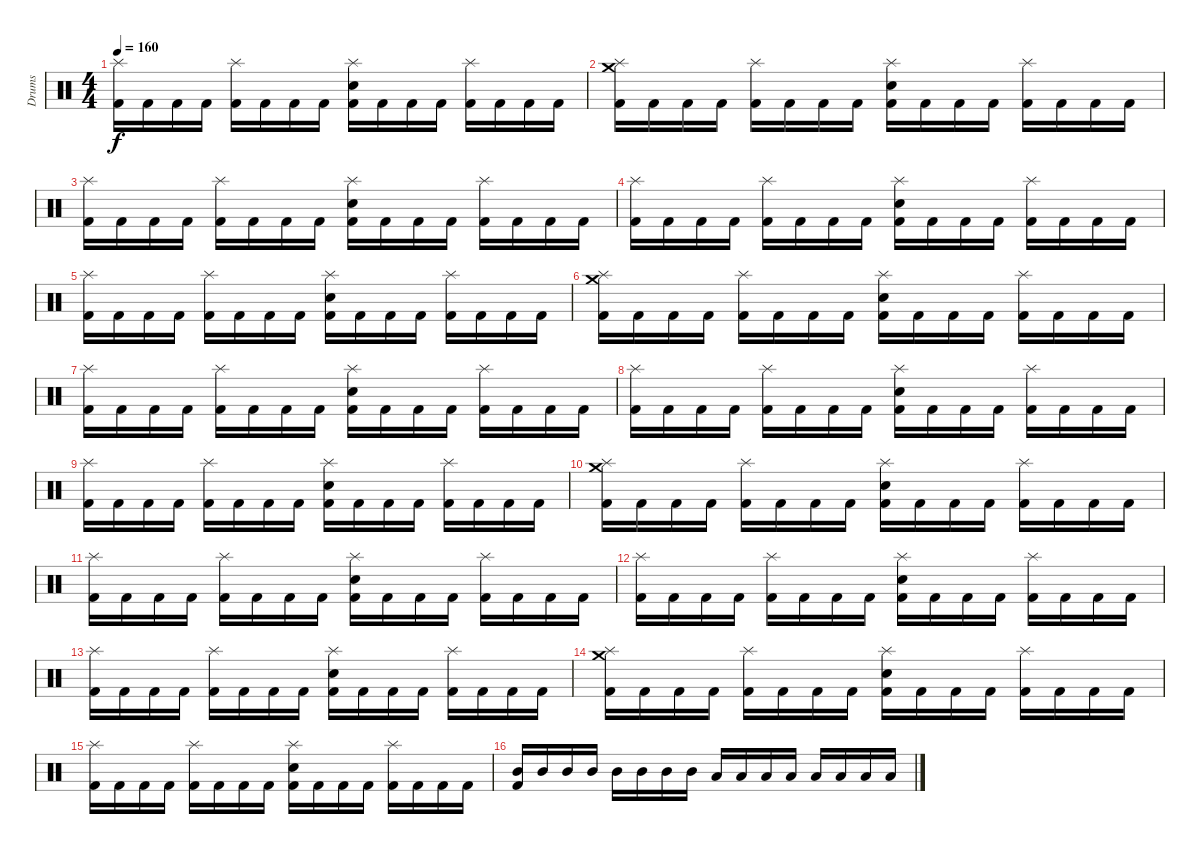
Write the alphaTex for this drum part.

\track ("Drums" "Drums") {instrument percussion}
\staff {score}
\articulation defaults
\ts (4 4)
\tempo 160
\clef neutral
\ks c
("Splash (hit)" "Kick (hit) 2").16{dy f} "Kick (hit) 2".16 "Kick (hit) 2".16 "Kick (hit) 2".16 ("Splash (hit)" "Kick (hit) 2").16 "Kick (hit) 2".16 "Kick (hit) 2".16 "Kick (hit) 2".16 ("Splash (hit)" "Snare (hit) 2" "Kick (hit) 2").16 "Kick (hit) 2".16 "Kick (hit) 2".16 "Kick (hit) 2".16 ("Splash (hit)" "Kick (hit) 2").16 "Kick (hit) 2".16 "Kick (hit) 2".16 "Kick (hit) 2".16 |
("Splash (hit)" "Crash medium (hit)" "Kick (hit) 2").16 "Kick (hit) 2".16 "Kick (hit) 2".16 "Kick (hit) 2".16 ("Splash (hit)" "Kick (hit) 2").16 "Kick (hit) 2".16 "Kick (hit) 2".16 "Kick (hit) 2".16 ("Splash (hit)" "Snare (hit) 2" "Kick (hit) 2").16 "Kick (hit) 2".16 "Kick (hit) 2".16 "Kick (hit) 2".16 ("Splash (hit)" "Kick (hit) 2").16 "Kick (hit) 2".16 "Kick (hit) 2".16 "Kick (hit) 2".16 |
("Splash (hit)" "Kick (hit) 2").16 "Kick (hit) 2".16 "Kick (hit) 2".16 "Kick (hit) 2".16 ("Splash (hit)" "Kick (hit) 2").16 "Kick (hit) 2".16 "Kick (hit) 2".16 "Kick (hit) 2".16 ("Splash (hit)" "Snare (hit) 2" "Kick (hit) 2").16 "Kick (hit) 2".16 "Kick (hit) 2".16 "Kick (hit) 2".16 ("Splash (hit)" "Kick (hit) 2").16 "Kick (hit) 2".16 "Kick (hit) 2".16 "Kick (hit) 2".16 |
("Splash (hit)" "Kick (hit) 2").16 "Kick (hit) 2".16 "Kick (hit) 2".16 "Kick (hit) 2".16 ("Splash (hit)" "Kick (hit) 2").16 "Kick (hit) 2".16 "Kick (hit) 2".16 "Kick (hit) 2".16 ("Splash (hit)" "Snare (hit) 2" "Kick (hit) 2").16 "Kick (hit) 2".16 "Kick (hit) 2".16 "Kick (hit) 2".16 ("Splash (hit)" "Kick (hit) 2").16 "Kick (hit) 2".16 "Kick (hit) 2".16 "Kick (hit) 2".16 |
("Splash (hit)" "Kick (hit) 2").16 "Kick (hit) 2".16 "Kick (hit) 2".16 "Kick (hit) 2".16 ("Splash (hit)" "Kick (hit) 2").16 "Kick (hit) 2".16 "Kick (hit) 2".16 "Kick (hit) 2".16 ("Splash (hit)" "Snare (hit) 2" "Kick (hit) 2").16 "Kick (hit) 2".16 "Kick (hit) 2".16 "Kick (hit) 2".16 ("Splash (hit)" "Kick (hit) 2").16 "Kick (hit) 2".16 "Kick (hit) 2".16 "Kick (hit) 2".16 |
("Splash (hit)" "Crash medium (hit)" "Kick (hit) 2").16 "Kick (hit) 2".16 "Kick (hit) 2".16 "Kick (hit) 2".16 ("Splash (hit)" "Kick (hit) 2").16 "Kick (hit) 2".16 "Kick (hit) 2".16 "Kick (hit) 2".16 ("Splash (hit)" "Snare (hit) 2" "Kick (hit) 2").16 "Kick (hit) 2".16 "Kick (hit) 2".16 "Kick (hit) 2".16 ("Splash (hit)" "Kick (hit) 2").16 "Kick (hit) 2".16 "Kick (hit) 2".16 "Kick (hit) 2".16 |
("Splash (hit)" "Kick (hit) 2").16 "Kick (hit) 2".16 "Kick (hit) 2".16 "Kick (hit) 2".16 ("Splash (hit)" "Kick (hit) 2").16 "Kick (hit) 2".16 "Kick (hit) 2".16 "Kick (hit) 2".16 ("Splash (hit)" "Snare (hit) 2" "Kick (hit) 2").16 "Kick (hit) 2".16 "Kick (hit) 2".16 "Kick (hit) 2".16 ("Splash (hit)" "Kick (hit) 2").16 "Kick (hit) 2".16 "Kick (hit) 2".16 "Kick (hit) 2".16 |
("Splash (hit)" "Kick (hit) 2").16 "Kick (hit) 2".16 "Kick (hit) 2".16 "Kick (hit) 2".16 ("Splash (hit)" "Kick (hit) 2").16 "Kick (hit) 2".16 "Kick (hit) 2".16 "Kick (hit) 2".16 ("Splash (hit)" "Snare (hit) 2" "Kick (hit) 2").16 "Kick (hit) 2".16 "Kick (hit) 2".16 "Kick (hit) 2".16 ("Splash (hit)" "Kick (hit) 2").16 "Kick (hit) 2".16 "Kick (hit) 2".16 "Kick (hit) 2".16 |
("Splash (hit)" "Kick (hit) 2").16 "Kick (hit) 2".16 "Kick (hit) 2".16 "Kick (hit) 2".16 ("Splash (hit)" "Kick (hit) 2").16 "Kick (hit) 2".16 "Kick (hit) 2".16 "Kick (hit) 2".16 ("Splash (hit)" "Snare (hit) 2" "Kick (hit) 2").16 "Kick (hit) 2".16 "Kick (hit) 2".16 "Kick (hit) 2".16 ("Splash (hit)" "Kick (hit) 2").16 "Kick (hit) 2".16 "Kick (hit) 2".16 "Kick (hit) 2".16 |
("Splash (hit)" "Crash medium (hit)" "Kick (hit) 2").16 "Kick (hit) 2".16 "Kick (hit) 2".16 "Kick (hit) 2".16 ("Splash (hit)" "Kick (hit) 2").16 "Kick (hit) 2".16 "Kick (hit) 2".16 "Kick (hit) 2".16 ("Splash (hit)" "Snare (hit) 2" "Kick (hit) 2").16 "Kick (hit) 2".16 "Kick (hit) 2".16 "Kick (hit) 2".16 ("Splash (hit)" "Kick (hit) 2").16 "Kick (hit) 2".16 "Kick (hit) 2".16 "Kick (hit) 2".16 |
("Splash (hit)" "Kick (hit) 2").16 "Kick (hit) 2".16 "Kick (hit) 2".16 "Kick (hit) 2".16 ("Splash (hit)" "Kick (hit) 2").16 "Kick (hit) 2".16 "Kick (hit) 2".16 "Kick (hit) 2".16 ("Splash (hit)" "Snare (hit) 2" "Kick (hit) 2").16 "Kick (hit) 2".16 "Kick (hit) 2".16 "Kick (hit) 2".16 ("Splash (hit)" "Kick (hit) 2").16 "Kick (hit) 2".16 "Kick (hit) 2".16 "Kick (hit) 2".16 |
("Splash (hit)" "Kick (hit) 2").16 "Kick (hit) 2".16 "Kick (hit) 2".16 "Kick (hit) 2".16 ("Splash (hit)" "Kick (hit) 2").16 "Kick (hit) 2".16 "Kick (hit) 2".16 "Kick (hit) 2".16 ("Splash (hit)" "Snare (hit) 2" "Kick (hit) 2").16 "Kick (hit) 2".16 "Kick (hit) 2".16 "Kick (hit) 2".16 ("Splash (hit)" "Kick (hit) 2").16 "Kick (hit) 2".16 "Kick (hit) 2".16 "Kick (hit) 2".16 |
("Splash (hit)" "Kick (hit) 2").16 "Kick (hit) 2".16 "Kick (hit) 2".16 "Kick (hit) 2".16 ("Splash (hit)" "Kick (hit) 2").16 "Kick (hit) 2".16 "Kick (hit) 2".16 "Kick (hit) 2".16 ("Splash (hit)" "Snare (hit) 2" "Kick (hit) 2").16 "Kick (hit) 2".16 "Kick (hit) 2".16 "Kick (hit) 2".16 ("Splash (hit)" "Kick (hit) 2").16 "Kick (hit) 2".16 "Kick (hit) 2".16 "Kick (hit) 2".16 |
("Splash (hit)" "Crash medium (hit)" "Kick (hit) 2").16 "Kick (hit) 2".16 "Kick (hit) 2".16 "Kick (hit) 2".16 ("Splash (hit)" "Kick (hit) 2").16 "Kick (hit) 2".16 "Kick (hit) 2".16 "Kick (hit) 2".16 ("Splash (hit)" "Snare (hit) 2" "Kick (hit) 2").16 "Kick (hit) 2".16 "Kick (hit) 2".16 "Kick (hit) 2".16 ("Splash (hit)" "Kick (hit) 2").16 "Kick (hit) 2".16 "Kick (hit) 2".16 "Kick (hit) 2".16 |
("Splash (hit)" "Kick (hit) 2").16 "Kick (hit) 2".16 "Kick (hit) 2".16 "Kick (hit) 2".16 ("Splash (hit)" "Kick (hit) 2").16 "Kick (hit) 2".16 "Kick (hit) 2".16 "Kick (hit) 2".16 ("Splash (hit)" "Snare (hit) 2" "Kick (hit) 2").16 "Kick (hit) 2".16 "Kick (hit) 2".16 "Kick (hit) 2".16 ("Splash (hit)" "Kick (hit) 2").16 "Kick (hit) 2".16 "Kick (hit) 2".16 "Kick (hit) 2".16 |
("Mid Tom (hit)" "Kick (hit) 2").16 "Mid Tom (hit)".16 "Mid Tom (hit)".16 "Mid Tom (hit)".16 "Mid Tom (hit)".16 "Mid Tom (hit)".16 "Mid Tom (hit)".16 "Mid Tom (hit)".16 "Low Tom (hit)".16 "Low Tom (hit)".16 "Low Tom (hit)".16 "Low Tom (hit)".16 "Low Tom (hit)".16 "Low Tom (hit)".16 "Low Tom (hit)".16 "Low Tom (hit)".16
